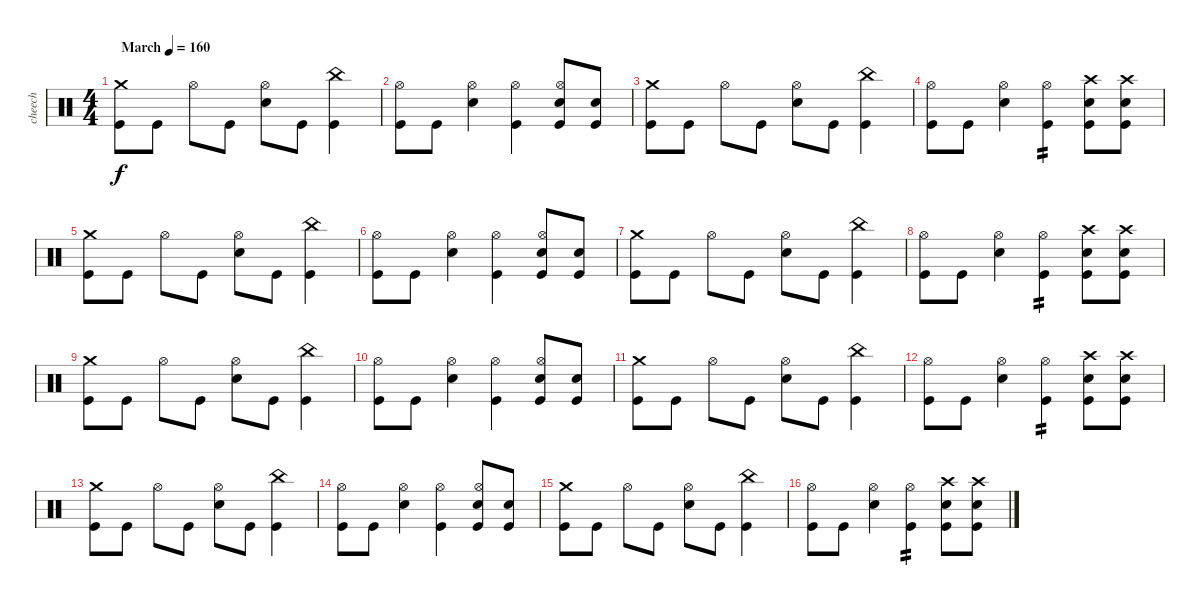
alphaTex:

\track ("cheech" "cheech") {instrument percussion}
\staff {score}
\articulation defaults
\ts (4 4)
\tempo (160 "March")
\clef neutral
\ks c
("Crash medium (hit)" "Kick (hit)").8{dy f} "Kick (hit)".8 "Hi-Hat (open)".8 "Kick (hit)".8 ("Hi-Hat (open)" "Electric Snare (hit)").8 "Kick (hit)".8 ("China (hit)" "Kick (hit)").4 |
("Hi-Hat (open)" "Kick (hit)").8 "Kick (hit)".8 ("Hi-Hat (open)" "Electric Snare (hit)").4 ("Hi-Hat (open)" "Kick (hit)").4 ("Hi-Hat (open)" "Electric Snare (hit)" "Kick (hit)").8 ("Electric Snare (hit)" "Kick (hit)").8 |
("Crash medium (hit)" "Kick (hit)").8 "Kick (hit)".8 "Hi-Hat (open)".8 "Kick (hit)".8 ("Hi-Hat (open)" "Electric Snare (hit)").8 "Kick (hit)".8 ("China (hit)" "Kick (hit)").4 |
("Hi-Hat (open)" "Kick (hit)").8 "Kick (hit)".8 ("Hi-Hat (open)" "Electric Snare (hit)").4 ("Hi-Hat (open)" "Kick (hit)").4{tp 2} ("Crash high (hit)" "Electric Snare (hit)" "Kick (hit)").8 ("Crash high (hit)" "Electric Snare (hit)" "Kick (hit)").8 |
("Crash medium (hit)" "Kick (hit)").8 "Kick (hit)".8 "Hi-Hat (open)".8 "Kick (hit)".8 ("Hi-Hat (open)" "Electric Snare (hit)").8 "Kick (hit)".8 ("China (hit)" "Kick (hit)").4 |
("Hi-Hat (open)" "Kick (hit)").8 "Kick (hit)".8 ("Hi-Hat (open)" "Electric Snare (hit)").4 ("Hi-Hat (open)" "Kick (hit)").4 ("Hi-Hat (open)" "Electric Snare (hit)" "Kick (hit)").8 ("Electric Snare (hit)" "Kick (hit)").8 |
("Crash medium (hit)" "Kick (hit)").8 "Kick (hit)".8 "Hi-Hat (open)".8 "Kick (hit)".8 ("Hi-Hat (open)" "Electric Snare (hit)").8 "Kick (hit)".8 ("China (hit)" "Kick (hit)").4 |
("Hi-Hat (open)" "Kick (hit)").8 "Kick (hit)".8 ("Hi-Hat (open)" "Electric Snare (hit)").4 ("Hi-Hat (open)" "Kick (hit)").4{tp 2} ("Crash high (hit)" "Electric Snare (hit)" "Kick (hit)").8 ("Crash high (hit)" "Electric Snare (hit)" "Kick (hit)").8 |
("Crash medium (hit)" "Kick (hit)").8 "Kick (hit)".8 "Hi-Hat (open)".8 "Kick (hit)".8 ("Hi-Hat (open)" "Electric Snare (hit)").8 "Kick (hit)".8 ("China (hit)" "Kick (hit)").4 |
("Hi-Hat (open)" "Kick (hit)").8 "Kick (hit)".8 ("Hi-Hat (open)" "Electric Snare (hit)").4 ("Hi-Hat (open)" "Kick (hit)").4 ("Hi-Hat (open)" "Electric Snare (hit)" "Kick (hit)").8 ("Electric Snare (hit)" "Kick (hit)").8 |
("Crash medium (hit)" "Kick (hit)").8 "Kick (hit)".8 "Hi-Hat (open)".8 "Kick (hit)".8 ("Hi-Hat (open)" "Electric Snare (hit)").8 "Kick (hit)".8 ("China (hit)" "Kick (hit)").4 |
("Hi-Hat (open)" "Kick (hit)").8 "Kick (hit)".8 ("Hi-Hat (open)" "Electric Snare (hit)").4 ("Hi-Hat (open)" "Kick (hit)").4{tp 2} ("Crash high (hit)" "Electric Snare (hit)" "Kick (hit)").8 ("Crash high (hit)" "Electric Snare (hit)" "Kick (hit)").8 |
("Crash medium (hit)" "Kick (hit)").8 "Kick (hit)".8 "Hi-Hat (open)".8 "Kick (hit)".8 ("Hi-Hat (open)" "Electric Snare (hit)").8 "Kick (hit)".8 ("China (hit)" "Kick (hit)").4 |
("Hi-Hat (open)" "Kick (hit)").8 "Kick (hit)".8 ("Hi-Hat (open)" "Electric Snare (hit)").4 ("Hi-Hat (open)" "Kick (hit)").4 ("Hi-Hat (open)" "Electric Snare (hit)" "Kick (hit)").8 ("Electric Snare (hit)" "Kick (hit)").8 |
("Crash medium (hit)" "Kick (hit)").8 "Kick (hit)".8 "Hi-Hat (open)".8 "Kick (hit)".8 ("Hi-Hat (open)" "Electric Snare (hit)").8 "Kick (hit)".8 ("China (hit)" "Kick (hit)").4 |
("Hi-Hat (open)" "Kick (hit)").8 "Kick (hit)".8 ("Hi-Hat (open)" "Electric Snare (hit)").4 ("Hi-Hat (open)" "Kick (hit)").4{tp 2} ("Crash high (hit)" "Electric Snare (hit)" "Kick (hit)").8 ("Crash high (hit)" "Electric Snare (hit)" "Kick (hit)").8
